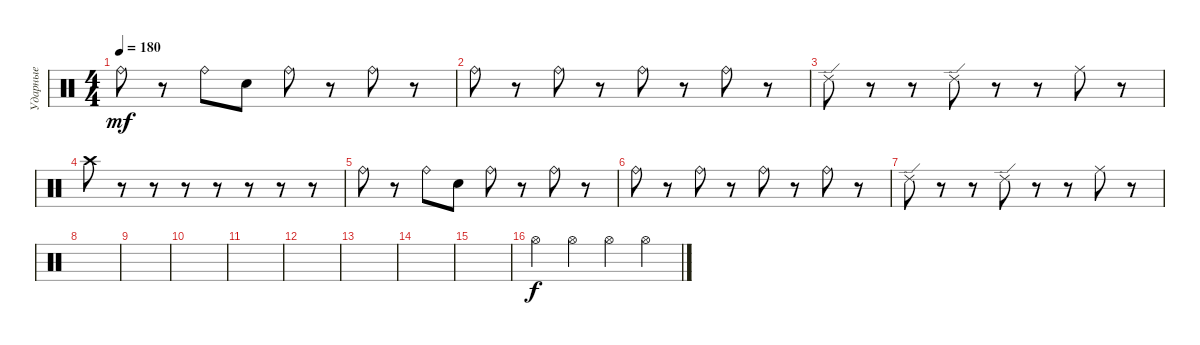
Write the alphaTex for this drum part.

\track ("Ударные" "Ударные") {instrument percussion}
\staff {score}
\articulation defaults
\ts (4 4)
\tempo 180
\clef neutral
\ks c "Ride (bell)".8{dy mf}
r.8 "Ride (bell)".8 "Snare (hit)".8 "Ride (bell)".8 r.8 "Ride (bell)".8 r.8 |
"Ride (bell)".8 r.8 "Ride (bell)".8 r.8 "Ride (bell)".8 r.8 "Ride (bell)".8 r.8 |
"Ride (edge) 2".8 r.8 r.8 "Ride (edge) 2".8 r.8 r.8 "Ride (middle)".8 r.8 |
"Crash high (hit)".8 r.8 r.8 r.8 r.8 r.8 r.8 r.8 |
"Ride (bell)".8 r.8 "Ride (bell)".8 "Snare (hit)".8 "Ride (bell)".8 r.8 "Ride (bell)".8 r.8 |
"Ride (bell)".8 r.8 "Ride (bell)".8 r.8 "Ride (bell)".8 r.8 "Ride (bell)".8 r.8 |
"Ride (edge) 2".8 r.8 r.8 "Ride (edge) 2".8 r.8 r.8 "Ride (middle)".8 r.8 |
|
|
|
|
|
|
|
|
"Hi-Hat (open)".4{dy f} "Hi-Hat (open)".4 "Hi-Hat (open)".4 "Hi-Hat (open)".4
